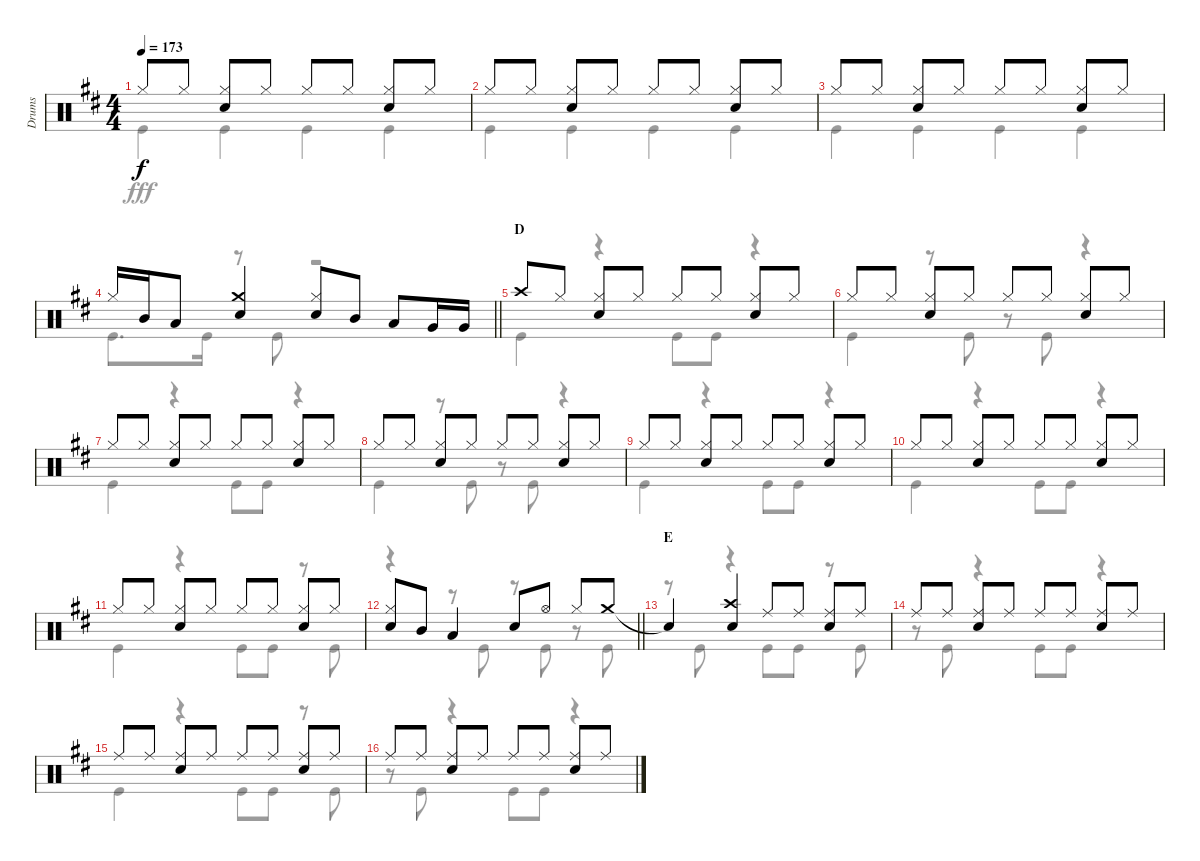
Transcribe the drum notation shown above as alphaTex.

\track ("Drums" "Drums") {instrument percussion}
\staff {score}
\articulation defaults
\voice
\ts (4 4)
\tempo 173
\clef neutral
\ks d "Hi-Hat (closed)".8{dy f} "Hi-Hat (closed)".8
("Hi-Hat (closed)" "Snare (hit) 2").8 "Hi-Hat (closed)".8 "Hi-Hat (closed)".8 "Hi-Hat (closed)".8 ("Hi-Hat (closed)" "Snare (hit) 2").8 "Hi-Hat (closed)".8 |
"Hi-Hat (closed)".8 "Hi-Hat (closed)".8 ("Hi-Hat (closed)" "Snare (hit) 2").8 "Hi-Hat (closed)".8 "Hi-Hat (closed)".8 "Hi-Hat (closed)".8 ("Hi-Hat (closed)" "Snare (hit) 2").8 "Hi-Hat (closed)".8 |
"Hi-Hat (closed)".8 "Hi-Hat (closed)".8 ("Hi-Hat (closed)" "Snare (hit) 2").8 "Hi-Hat (closed)".8 "Hi-Hat (closed)".8 "Hi-Hat (closed)".8 ("Hi-Hat (closed)" "Snare (hit) 2").8 "Hi-Hat (closed)".8 |
\barLineRight lightlight "Hi-Hat (closed)".16 "Mid Tom (hit)".16 "Low Tom (hit)".8
("Crash medium (hit)" "Snare (hit) 2").4 ("Hi-Hat (closed)" "Snare (hit) 2").8 "Mid Tom (hit)".8 "Low Tom (hit)".8 "Very Low Tom (hit)".16 "Very Low Tom (hit)".16 |
\section ("" "D")
"Crash high (hit)".8 "Hi-Hat (closed)".8 ("Hi-Hat (closed)" "Snare (hit) 2").8 "Hi-Hat (closed)".8 "Hi-Hat (closed)".8 "Hi-Hat (closed)".8 ("Hi-Hat (closed)" "Snare (hit) 2").8 "Hi-Hat (closed)".8 |
"Hi-Hat (closed)".8 "Hi-Hat (closed)".8 ("Hi-Hat (closed)" "Snare (hit) 2").8 "Hi-Hat (closed)".8 "Hi-Hat (closed)".8 "Hi-Hat (closed)".8 ("Hi-Hat (closed)" "Snare (hit) 2").8 "Hi-Hat (closed)".8 |
"Hi-Hat (closed)".8 "Hi-Hat (closed)".8 ("Hi-Hat (closed)" "Snare (hit) 2").8 "Hi-Hat (closed)".8 "Hi-Hat (closed)".8 "Hi-Hat (closed)".8 ("Hi-Hat (closed)" "Snare (hit) 2").8 "Hi-Hat (closed)".8 |
"Hi-Hat (closed)".8 "Hi-Hat (closed)".8 ("Hi-Hat (closed)" "Snare (hit) 2").8 "Hi-Hat (closed)".8 "Hi-Hat (closed)".8 "Hi-Hat (closed)".8 ("Hi-Hat (closed)" "Snare (hit) 2").8 "Hi-Hat (closed)".8 |
"Hi-Hat (closed)".8 "Hi-Hat (closed)".8 ("Hi-Hat (closed)" "Snare (hit) 2").8 "Hi-Hat (closed)".8 "Hi-Hat (closed)".8 "Hi-Hat (closed)".8 ("Hi-Hat (closed)" "Snare (hit) 2").8 "Hi-Hat (closed)".8 |
"Hi-Hat (closed)".8 "Hi-Hat (closed)".8 ("Hi-Hat (closed)" "Snare (hit) 2").8 "Hi-Hat (closed)".8 "Hi-Hat (closed)".8 "Hi-Hat (closed)".8 ("Hi-Hat (closed)" "Snare (hit) 2").8 "Hi-Hat (closed)".8 |
"Hi-Hat (closed)".8 "Hi-Hat (closed)".8 ("Hi-Hat (closed)" "Snare (hit) 2").8 "Hi-Hat (closed)".8 "Hi-Hat (closed)".8 "Hi-Hat (closed)".8 ("Hi-Hat (closed)" "Snare (hit) 2").8 "Hi-Hat (closed)".8 |
\barLineRight lightlight
("Hi-Hat (closed)" "Snare (hit) 2").8 "Mid Tom (hit)".8 "Low Tom (hit)".4 "Snare (hit) 2".8 "Hi-Hat (open)".8 "Hi-Hat (closed)".8 "Crash medium (hit)".8 |
\section ("" "E")
"Snare (hit)"{t}.4 ("Crash high (hit)" "Snare (hit) 2").4 "Ride (middle)".8 "Ride (middle)".8 ("Ride (middle)" "Snare (hit) 2").8 "Ride (middle)".8 |
"Ride (middle)".8 "Ride (middle)".8 ("Ride (middle)" "Snare (hit) 2").8 "Ride (middle)".8 "Ride (middle)".8 "Ride (middle)".8 ("Ride (middle)" "Snare (hit) 2").8 "Ride (middle)".8 |
"Ride (middle)".8 "Ride (middle)".8 ("Ride (middle)" "Snare (hit) 2").8 "Ride (middle)".8 "Ride (middle)".8 "Ride (middle)".8 ("Ride (middle)" "Snare (hit) 2").8 "Ride (middle)".8 |
"Ride (middle)".8 "Ride (middle)".8 ("Ride (middle)" "Snare (hit) 2").8 "Ride (middle)".8 "Ride (middle)".8 "Ride (middle)".8 ("Ride (middle)" "Snare (hit) 2").8 "Ride (middle)".8
\voice
\clef neutral
\ottava regular
\simile none
\ks d "Kick (hit)".4{dy fff} "Kick (hit)".4 "Kick (hit)".4 "Kick (hit)".4
|
"Kick (hit)".4 "Kick (hit)".4 "Kick (hit)".4 "Kick (hit)".4 |
"Kick (hit)".4 "Kick (hit)".4 "Kick (hit)".4 "Kick (hit)".4 |
\barLineRight lightlight "Kick (hit)".8{d} "Kick (hit)".16
r.8 "Kick (hit)".8 r.2 |
"Kick (hit)".4 r.4 "Kick (hit)".8 "Kick (hit)".8 r.4 |
"Kick (hit)".4 r.8 "Kick (hit)".8 r.8 "Kick (hit)".8 r.4 |
"Kick (hit)".4 r.4 "Kick (hit)".8 "Kick (hit)".8 r.4 |
"Kick (hit)".4 r.8 "Kick (hit)".8 r.8 "Kick (hit)".8 r.4 |
"Kick (hit)".4 r.4 "Kick (hit)".8 "Kick (hit)".8 r.4 |
"Kick (hit)".4 r.4 "Kick (hit)".8 "Kick (hit)".8 r.4 |
"Kick (hit)".4 r.4 "Kick (hit)".8 "Kick (hit)".8 r.8 "Kick (hit)".8 |
\barLineRight lightlight
r.4 r.8 "Kick (hit)".8 r.8 "Kick (hit)".8 r.8 "Kick (hit)".8 |
r.8 "Kick (hit)".8 r.4 "Kick (hit)".8 "Kick (hit)".8 r.8 "Kick (hit)".8 |
r.8 "Kick (hit)".8 r.4 "Kick (hit)".8 "Kick (hit)".8 r.4 |
"Kick (hit)".4 r.4 "Kick (hit)".8 "Kick (hit)".8 r.8 "Kick (hit)".8 |
r.8 "Kick (hit)".8 r.4 "Kick (hit)".8 "Kick (hit)".8 r.4
